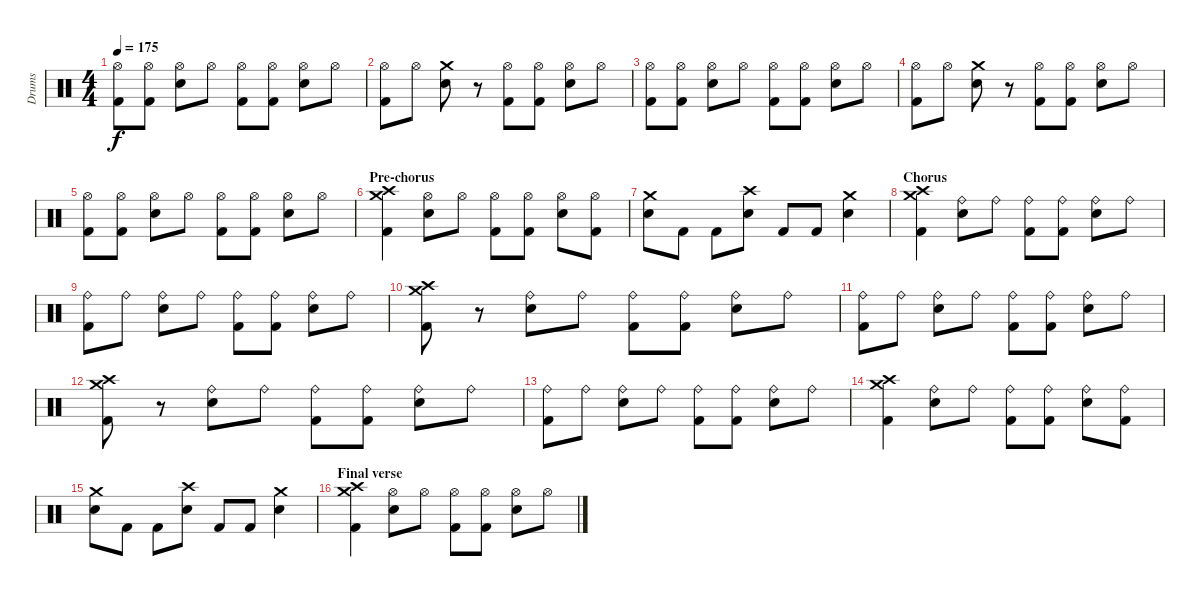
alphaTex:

\track ("Drums" "Drums") {instrument percussion}
\staff {score}
\articulation defaults
\ts (4 4)
\tempo 175
\clef neutral
\ks c
("Hi-Hat (open)" "Kick (hit) 2").8{dy f} ("Hi-Hat (open)" "Kick (hit) 2").8 ("Hi-Hat (open)" "Electric Snare (hit)").8 "Hi-Hat (open)".8 ("Hi-Hat (open)" "Kick (hit) 2").8 ("Hi-Hat (open)" "Kick (hit) 2").8 ("Hi-Hat (open)" "Electric Snare (hit)").8 "Hi-Hat (open)".8 |
("Hi-Hat (open)" "Kick (hit) 2").8 "Hi-Hat (open)".8 ("Crash medium (hit)" "Electric Snare (hit)").8 r.8 ("Hi-Hat (open)" "Kick (hit) 2").8 ("Hi-Hat (open)" "Kick (hit) 2").8 ("Hi-Hat (open)" "Electric Snare (hit)").8 "Hi-Hat (open)".8 |
("Hi-Hat (open)" "Kick (hit) 2").8 ("Hi-Hat (open)" "Kick (hit) 2").8 ("Hi-Hat (open)" "Electric Snare (hit)").8 "Hi-Hat (open)".8 ("Hi-Hat (open)" "Kick (hit) 2").8 ("Hi-Hat (open)" "Kick (hit) 2").8 ("Hi-Hat (open)" "Electric Snare (hit)").8 "Hi-Hat (open)".8 |
("Hi-Hat (open)" "Kick (hit) 2").8 "Hi-Hat (open)".8 ("Crash medium (hit)" "Electric Snare (hit)").8 r.8 ("Hi-Hat (open)" "Kick (hit) 2").8 ("Hi-Hat (open)" "Kick (hit) 2").8 ("Hi-Hat (open)" "Electric Snare (hit)").8 "Hi-Hat (open)".8 |
("Hi-Hat (open)" "Kick (hit) 2").8 ("Hi-Hat (open)" "Kick (hit) 2").8 ("Hi-Hat (open)" "Electric Snare (hit)").8 "Hi-Hat (open)".8 ("Hi-Hat (open)" "Kick (hit) 2").8 ("Hi-Hat (open)" "Kick (hit) 2").8 ("Hi-Hat (open)" "Electric Snare (hit)").8 "Hi-Hat (open)".8 |
\section ("" "Pre-chorus")
("Crash high (hit)" "Crash medium (hit)" "Kick (hit) 2").4 ("Hi-Hat (open)" "Electric Snare (hit)").8 "Hi-Hat (open)".8 ("Hi-Hat (open)" "Kick (hit) 2").8 ("Hi-Hat (open)" "Kick (hit) 2").8 ("Hi-Hat (open)" "Electric Snare (hit)").8 ("Hi-Hat (open)" "Kick (hit) 2").8 |
("Crash medium (hit)" "Electric Snare (hit)").8 "Kick (hit) 2".8 "Kick (hit) 2".8 ("Crash high (hit)" "Electric Snare (hit)").8 "Kick (hit) 2".8 "Kick (hit) 2".8 ("Crash medium (hit)" "Electric Snare (hit)").4 |
\section ("" "Chorus")
("Crash high (hit)" "Crash medium (hit)" "Kick (hit) 2").4 ("Ride (bell)" "Electric Snare (hit)").8 "Ride (bell)".8 ("Ride (bell)" "Kick (hit) 2").8 ("Ride (bell)" "Kick (hit) 2").8 ("Ride (bell)" "Electric Snare (hit)").8 "Ride (bell)".8 |
("Ride (bell)" "Kick (hit) 2").8 "Ride (bell)".8 ("Ride (bell)" "Electric Snare (hit)").8 "Ride (bell)".8 ("Ride (bell)" "Kick (hit) 2").8 ("Ride (bell)" "Kick (hit) 2").8 ("Ride (bell)" "Electric Snare (hit)").8 "Ride (bell)".8 |
("Crash high (hit)" "Crash medium (hit)" "Kick (hit) 2").8 r.8 ("Ride (bell)" "Electric Snare (hit)").8 "Ride (bell)".8 ("Ride (bell)" "Kick (hit) 2").8 ("Ride (bell)" "Kick (hit) 2").8 ("Ride (bell)" "Electric Snare (hit)").8 "Ride (bell)".8 |
("Ride (bell)" "Kick (hit) 2").8 "Ride (bell)".8 ("Ride (bell)" "Electric Snare (hit)").8 "Ride (bell)".8 ("Ride (bell)" "Kick (hit) 2").8 ("Ride (bell)" "Kick (hit) 2").8 ("Ride (bell)" "Electric Snare (hit)").8 "Ride (bell)".8 |
("Crash high (hit)" "Crash medium (hit)" "Kick (hit) 2").8 r.8 ("Ride (bell)" "Electric Snare (hit)").8 "Ride (bell)".8 ("Ride (bell)" "Kick (hit) 2").8 ("Ride (bell)" "Kick (hit) 2").8 ("Ride (bell)" "Electric Snare (hit)").8 "Ride (bell)".8 |
("Ride (bell)" "Kick (hit) 2").8 "Ride (bell)".8 ("Ride (bell)" "Electric Snare (hit)").8 "Ride (bell)".8 ("Ride (bell)" "Kick (hit) 2").8 ("Ride (bell)" "Kick (hit) 2").8 ("Ride (bell)" "Electric Snare (hit)").8 "Ride (bell)".8 |
("Crash high (hit)" "Crash medium (hit)" "Kick (hit) 2").4 ("Ride (bell)" "Electric Snare (hit)").8 "Ride (bell)".8 ("Ride (bell)" "Kick (hit) 2").8 ("Ride (bell)" "Kick (hit) 2").8 ("Ride (bell)" "Electric Snare (hit)").8 ("Ride (bell)" "Kick (hit) 2").8 |
("Crash medium (hit)" "Electric Snare (hit)").8 "Kick (hit) 2".8 "Kick (hit) 2".8 ("Crash high (hit)" "Electric Snare (hit)").8 "Kick (hit) 2".8 "Kick (hit) 2".8 ("Crash medium (hit)" "Electric Snare (hit)").4 |
\section ("" "Final verse")
("Crash high (hit)" "Crash medium (hit)" "Kick (hit) 2").4 ("Hi-Hat (open)" "Electric Snare (hit)").8 "Hi-Hat (open)".8 ("Hi-Hat (open)" "Kick (hit) 2").8 ("Hi-Hat (open)" "Kick (hit) 2").8 ("Hi-Hat (open)" "Electric Snare (hit)").8 "Hi-Hat (open)".8
